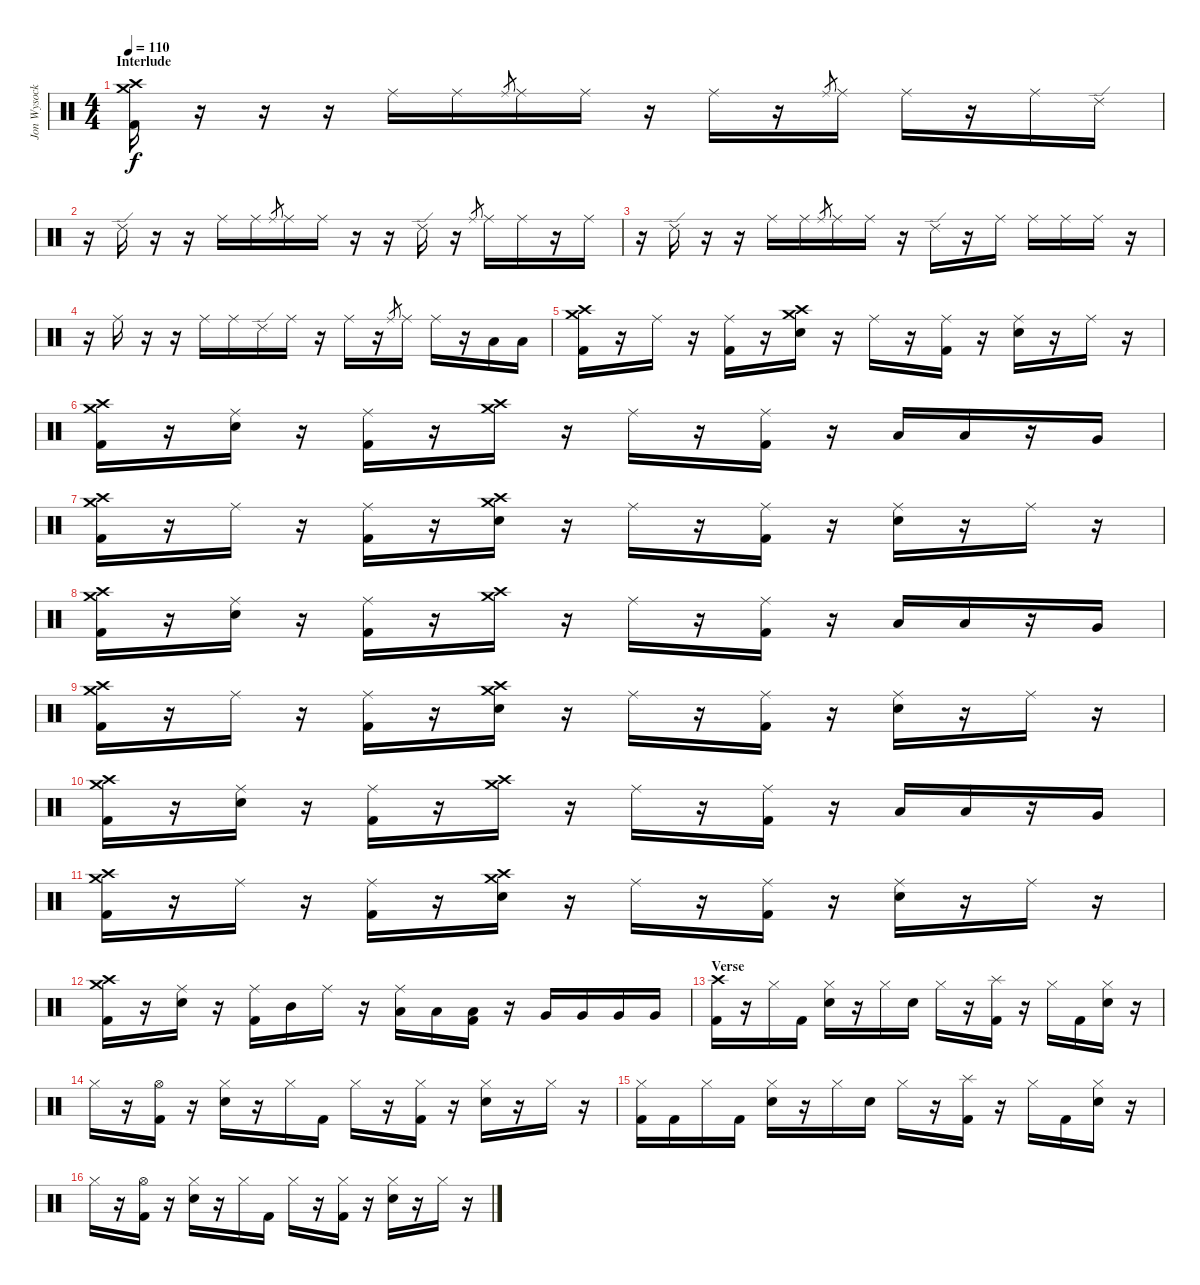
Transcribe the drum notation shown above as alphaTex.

\track ("Jon Wysocki" "Jon Wysock") {instrument percussion}
\staff {score}
\articulation defaults
\ts (4 4)
\section ("" "Interlude")
\tempo 110
\clef neutral
\ks c
("Crash medium (hit)" "Crash high (hit)" "Kick (hit) 2").16{dy f} r.16 r.16 r.16 "Ride (middle)".16 "Ride (middle)".16 "Ride (middle)".8{gr} "Ride (middle)".16 "Ride (middle)".16 r.16 "Ride (middle)".16 r.16 "Ride (middle)".8{gr} "Ride (middle)".16 "Ride (middle)".16 r.16 "Ride (middle)".16 "Ride (edge) 2".16 |
r.16 "Ride (edge) 2".16 r.16 r.16 "Ride (middle)".16 "Ride (middle)".16 "Ride (middle)".8{gr} "Ride (middle)".16 "Ride (middle)".16 r.16 r.16 "Ride (edge) 2".16 r.16 "Ride (middle)".8{gr} "Ride (middle)".16 "Ride (middle)".16 r.16 "Ride (middle)".16 |
r.16 "Ride (edge) 2".16 r.16 r.16 "Ride (middle)".16 "Ride (middle)".16 "Ride (middle)".8{gr} "Ride (middle)".16 "Ride (middle)".16 r.16 "Ride (edge) 2".16 r.16 "Ride (middle)".16 "Ride (middle)".16 "Ride (middle)".16 "Ride (middle)".16 r.16 |
r.16 "Ride (middle)".16 r.16 r.16 "Ride (middle)".16 "Ride (middle)".16 "Ride (edge) 2".16 "Ride (middle)".16 r.16 "Ride (middle)".16 r.16 "Ride (middle)".8{gr} "Ride (middle)".16 "Ride (middle)".16 r.16 "Low Tom (hit)".16 "Low Tom (hit)".16 |
("Crash medium (hit)" "Crash high (hit)" "Kick (hit) 2").16 r.16 "Ride (middle)".16 r.16 ("Ride (middle)" "Kick (hit) 2").16 r.16 ("Crash medium (hit)" "Crash high (hit)" "Snare (hit) 2").16 r.16 "Ride (middle)".16 r.16 ("Ride (middle)" "Kick (hit) 2").16 r.16 ("Ride (middle)" "Snare (hit) 2").16 r.16 "Ride (middle)".16 r.16 |
("Crash medium (hit)" "Crash high (hit)" "Kick (hit) 2").16 r.16 ("Ride (middle)" "Snare (hit) 2").16 r.16 ("Ride (middle)" "Kick (hit) 2").16 r.16 ("Crash medium (hit)" "Crash high (hit)").16 r.16 "Ride (middle)".16 r.16 ("Ride (middle)" "Kick (hit) 2").16 r.16 "Low Tom (hit)".16 "Low Tom (hit)".16 r.16 "Very Low Tom (hit)".16 |
("Crash medium (hit)" "Crash high (hit)" "Kick (hit) 2").16 r.16 "Ride (middle)".16 r.16 ("Ride (middle)" "Kick (hit) 2").16 r.16 ("Crash medium (hit)" "Crash high (hit)" "Snare (hit) 2").16 r.16 "Ride (middle)".16 r.16 ("Ride (middle)" "Kick (hit) 2").16 r.16 ("Ride (middle)" "Snare (hit) 2").16 r.16 "Ride (middle)".16 r.16 |
("Crash medium (hit)" "Crash high (hit)" "Kick (hit) 2").16 r.16 ("Ride (middle)" "Snare (hit) 2").16 r.16 ("Ride (middle)" "Kick (hit) 2").16 r.16 ("Crash medium (hit)" "Crash high (hit)").16 r.16 "Ride (middle)".16 r.16 ("Ride (middle)" "Kick (hit) 2").16 r.16 "Low Tom (hit)".16 "Low Tom (hit)".16 r.16 "Very Low Tom (hit)".16 |
("Crash medium (hit)" "Crash high (hit)" "Kick (hit) 2").16 r.16 "Ride (middle)".16 r.16 ("Ride (middle)" "Kick (hit) 2").16 r.16 ("Crash medium (hit)" "Crash high (hit)" "Snare (hit) 2").16 r.16 "Ride (middle)".16 r.16 ("Ride (middle)" "Kick (hit) 2").16 r.16 ("Ride (middle)" "Snare (hit) 2").16 r.16 "Ride (middle)".16 r.16 |
("Crash medium (hit)" "Crash high (hit)" "Kick (hit) 2").16 r.16 ("Ride (middle)" "Snare (hit) 2").16 r.16 ("Ride (middle)" "Kick (hit) 2").16 r.16 ("Crash medium (hit)" "Crash high (hit)").16 r.16 "Ride (middle)".16 r.16 ("Ride (middle)" "Kick (hit) 2").16 r.16 "Low Tom (hit)".16 "Low Tom (hit)".16 r.16 "Very Low Tom (hit)".16 |
("Crash medium (hit)" "Crash high (hit)" "Kick (hit) 2").16 r.16 "Ride (middle)".16 r.16 ("Ride (middle)" "Kick (hit) 2").16 r.16 ("Crash medium (hit)" "Crash high (hit)" "Snare (hit) 2").16 r.16 "Ride (middle)".16 r.16 ("Ride (middle)" "Kick (hit) 2").16 r.16 ("Ride (middle)" "Snare (hit) 2").16 r.16 "Ride (middle)".16 r.16 |
("Crash medium (hit)" "Crash high (hit)" "Kick (hit) 2").16 r.16 ("Ride (middle)" "Snare (hit) 2").16 r.16 ("Ride (middle)" "Kick (hit) 2").16 "Mid Tom (hit)".16 "Ride (middle)".16 r.16 ("Ride (middle)" "Low Tom (hit)").16 "Low Tom (hit)".16 ("Low Floor Tom (hit)" "Kick (hit) 2").16 r.16 "Very Low Tom (hit)".16 "Very Low Tom (hit)".16 "Very Low Tom (hit)".16 "Very Low Tom (hit)".16 |
\section ("" "Verse")
("Crash high (hit)" "Kick (hit) 2").16 r.16 "Hi-Hat (closed)".16 "Kick (hit) 2".16 ("Hi-Hat (closed)" "Snare (hit) 2").16 r.16 "Hi-Hat (closed)".16 "Snare (hit) 2".16 "Hi-Hat (closed)".16 r.16 ("Splash (hit)" "Kick (hit) 2").16 r.16 "Hi-Hat (closed)".16 "Kick (hit) 2".16 ("Hi-Hat (closed)" "Snare (hit) 2").16 r.16 |
"Hi-Hat (closed)".16 r.16 ("Hi-Hat (open)" "Kick (hit) 2").16 r.16 ("Hi-Hat (closed)" "Snare (hit) 2").16 r.16 "Hi-Hat (closed)".16 "Kick (hit) 2".16 "Hi-Hat (closed)".16 r.16 ("Hi-Hat (closed)" "Kick (hit) 2").16 r.16 ("Hi-Hat (closed)" "Snare (hit) 2").16 r.16 "Hi-Hat (closed)".16 r.16 |
("Hi-Hat (closed)" "Kick (hit) 2").16 "Kick (hit) 2".16 "Hi-Hat (closed)".16 "Kick (hit) 2".16 ("Hi-Hat (closed)" "Snare (hit) 2").16 r.16 "Hi-Hat (closed)".16 "Snare (hit) 2".16 "Hi-Hat (closed)".16 r.16 ("Splash (hit)" "Kick (hit) 2").16 r.16 "Hi-Hat (closed)".16 "Kick (hit) 2".16 ("Hi-Hat (closed)" "Snare (hit) 2").16 r.16 |
"Hi-Hat (closed)".16 r.16 ("Hi-Hat (open)" "Kick (hit) 2").16 r.16 ("Hi-Hat (closed)" "Snare (hit) 2").16 r.16 "Hi-Hat (closed)".16 "Kick (hit) 2".16 "Hi-Hat (closed)".16 r.16 ("Hi-Hat (closed)" "Kick (hit) 2").16 r.16 ("Hi-Hat (closed)" "Snare (hit) 2").16 r.16 "Hi-Hat (closed)".16 r.16
